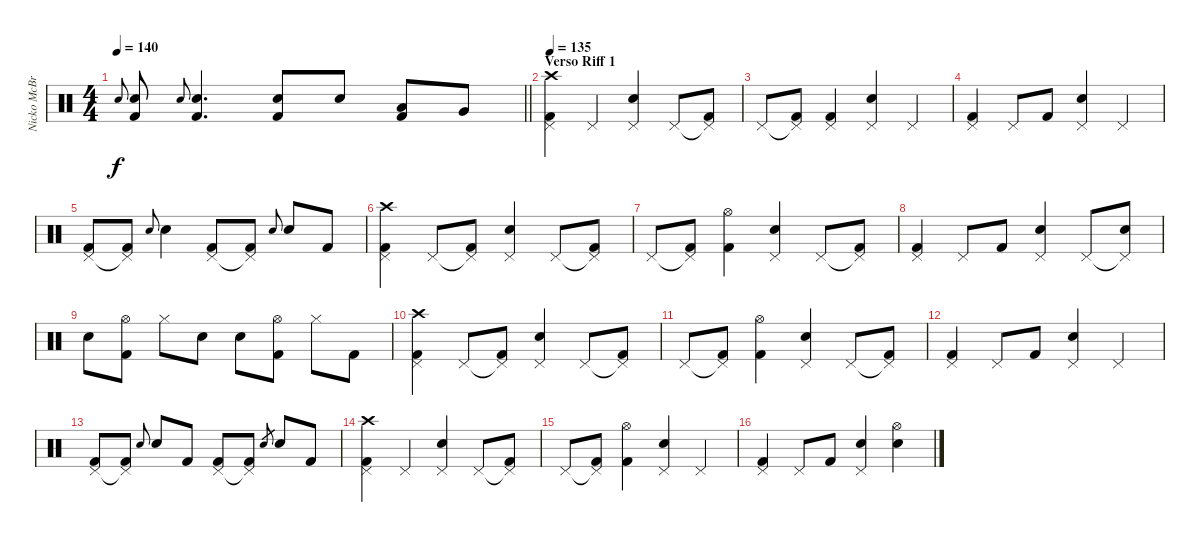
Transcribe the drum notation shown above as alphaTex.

\track ("Nicko McBrain" "Nicko McBr") {instrument percussion}
\staff {score}
\articulation defaults
\ts (4 4)
\tempo 140
\clef neutral
\barLineRight lightlight
\ks c "Snare (hit) 2".8{gr onbeat dy f}
("Snare (hit) 2" "Kick (hit) 2").8 "Snare (hit) 2".8{gr onbeat} ("Snare (hit) 2" "Kick (hit) 2").4{d} ("Snare (hit) 2" "Kick (hit) 2").8 "Snare (hit) 2".8 ("Low Tom (hit)" "Kick (hit) 2").8 "Very Low Tom (hit)".8 |
\section ("" "Verso Riff 1")
\tempo 135
("Pedal Hi-Hat (hit)" "Crash high (hit)" "Kick (hit) 2").4 "Pedal Hi-Hat (hit)".4 ("Pedal Hi-Hat (hit)" "Snare (hit) 2").4 "Pedal Hi-Hat (hit)".8 ("Pedal Hi-Hat (hit)"{t} "Kick (hit) 2").8 |
"Pedal Hi-Hat (hit)".8 ("Pedal Hi-Hat (hit)"{t} "Kick (hit) 2").8 ("Pedal Hi-Hat (hit)" "Kick (hit) 2").4 ("Pedal Hi-Hat (hit)" "Snare (hit) 2").4 "Pedal Hi-Hat (hit)".4 |
("Pedal Hi-Hat (hit)" "Kick (hit) 2").4 "Pedal Hi-Hat (hit)".8 "Kick (hit) 2".8 ("Pedal Hi-Hat (hit)" "Snare (hit) 2").4 "Pedal Hi-Hat (hit)".4 |
("Pedal Hi-Hat (hit)" "Kick (hit) 2").8 ("Pedal Hi-Hat (hit)"{t} "Kick (hit) 2").8 "Snare (hit) 2".8{gr onbeat} "Snare (hit) 2".4 ("Pedal Hi-Hat (hit)" "Kick (hit) 2").8 ("Pedal Hi-Hat (hit)"{t} "Kick (hit) 2").8 "Snare (hit) 2".8{gr onbeat} "Snare (hit) 2".8 "Kick (hit) 2".8 |
("Pedal Hi-Hat (hit)" "Crash high (hit)" "Kick (hit) 2").4 "Pedal Hi-Hat (hit)".8 ("Pedal Hi-Hat (hit)"{t} "Kick (hit) 2").8 ("Pedal Hi-Hat (hit)" "Snare (hit) 2").4 "Pedal Hi-Hat (hit)".8 ("Pedal Hi-Hat (hit)"{t} "Kick (hit) 2").8 |
"Pedal Hi-Hat (hit)".8 ("Pedal Hi-Hat (hit)"{t} "Kick (hit) 2").8 ("Hi-Hat (open)" "Kick (hit) 2").4 ("Pedal Hi-Hat (hit)" "Snare (hit) 2").4 "Pedal Hi-Hat (hit)".8 ("Pedal Hi-Hat (hit)"{t} "Kick (hit) 2").8 |
("Pedal Hi-Hat (hit)" "Kick (hit) 2").4 "Pedal Hi-Hat (hit)".8 "Kick (hit) 2".8 ("Pedal Hi-Hat (hit)" "Snare (hit) 2").4 "Pedal Hi-Hat (hit)".8 ("Pedal Hi-Hat (hit)"{t} "Snare (hit) 2").8 |
"Snare (hit) 2".8 ("Hi-Hat (open)" "Kick (hit) 2").8 "Hi-Hat (closed)".8 "Snare (hit) 2".8 "Snare (hit) 2".8 ("Hi-Hat (open)" "Kick (hit) 2").8 "Hi-Hat (closed)".8 "Kick (hit) 2".8 |
("Pedal Hi-Hat (hit)" "Crash high (hit)" "Kick (hit) 2").4 "Pedal Hi-Hat (hit)".8 ("Pedal Hi-Hat (hit)"{t} "Kick (hit) 2").8 ("Pedal Hi-Hat (hit)" "Snare (hit) 2").4 "Pedal Hi-Hat (hit)".8 ("Pedal Hi-Hat (hit)"{t} "Kick (hit) 2").8 |
"Pedal Hi-Hat (hit)".8 ("Pedal Hi-Hat (hit)"{t} "Kick (hit) 2").8 ("Hi-Hat (open)" "Kick (hit) 2").4 ("Pedal Hi-Hat (hit)" "Snare (hit) 2").4 "Pedal Hi-Hat (hit)".8 ("Pedal Hi-Hat (hit)"{t} "Kick (hit) 2").8 |
("Pedal Hi-Hat (hit)" "Kick (hit) 2").4 "Pedal Hi-Hat (hit)".8 "Kick (hit) 2".8 ("Pedal Hi-Hat (hit)" "Snare (hit) 2").4 "Pedal Hi-Hat (hit)".4 |
("Pedal Hi-Hat (hit)" "Kick (hit) 2").8 ("Pedal Hi-Hat (hit)"{t} "Kick (hit) 2").8 "Snare (hit) 2".8{gr onbeat} "Snare (hit) 2".8 "Kick (hit) 2".8 ("Pedal Hi-Hat (hit)" "Kick (hit) 2").8 ("Pedal Hi-Hat (hit)"{t} "Kick (hit) 2").8 "Snare (hit) 2".8{gr} "Snare (hit) 2".8 "Kick (hit) 2".8 |
("Pedal Hi-Hat (hit)" "Crash high (hit)" "Kick (hit) 2").4 "Pedal Hi-Hat (hit)".4 ("Pedal Hi-Hat (hit)" "Snare (hit) 2").4 "Pedal Hi-Hat (hit)".8 ("Pedal Hi-Hat (hit)"{t} "Kick (hit) 2").8 |
"Pedal Hi-Hat (hit)".8 ("Pedal Hi-Hat (hit)"{t} "Kick (hit) 2").8 ("Hi-Hat (open)" "Kick (hit) 2").4 ("Pedal Hi-Hat (hit)" "Snare (hit) 2").4 "Pedal Hi-Hat (hit)".4 |
("Pedal Hi-Hat (hit)" "Kick (hit) 2").4 "Pedal Hi-Hat (hit)".8 "Kick (hit) 2".8 ("Pedal Hi-Hat (hit)" "Snare (hit) 2").4 ("Hi-Hat (open)" "Snare (hit) 2").4
